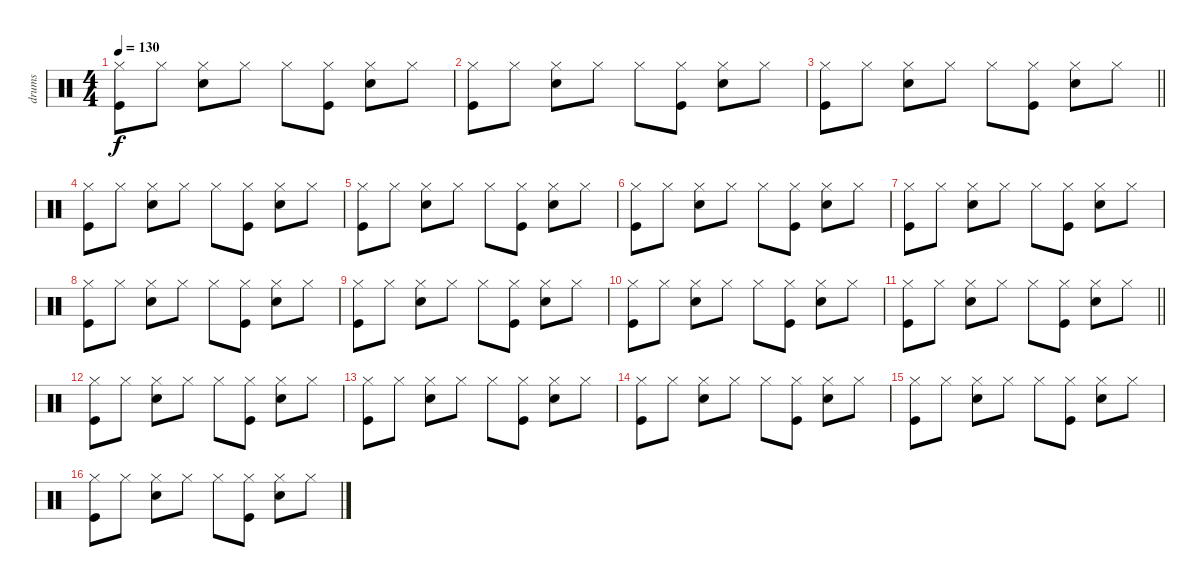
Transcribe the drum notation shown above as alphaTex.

\track ("drums" "drums") {instrument percussion}
\staff {score}
\articulation defaults
\ts (4 4)
\tempo 130
\clef neutral
\ks c
("Hi-Hat (closed)" "Kick (hit)").8{dy f} "Hi-Hat (closed)".8 ("Hi-Hat (closed)" "Snare (hit) 2").8 "Hi-Hat (closed)".8 "Hi-Hat (closed)".8 ("Hi-Hat (closed)" "Kick (hit)").8 ("Hi-Hat (closed)" "Snare (hit) 2").8 "Hi-Hat (closed)".8 |
("Hi-Hat (closed)" "Kick (hit)").8 "Hi-Hat (closed)".8 ("Hi-Hat (closed)" "Snare (hit) 2").8 "Hi-Hat (closed)".8 "Hi-Hat (closed)".8 ("Hi-Hat (closed)" "Kick (hit)").8 ("Hi-Hat (closed)" "Snare (hit) 2").8 "Hi-Hat (closed)".8 |
\barLineRight lightlight
("Hi-Hat (closed)" "Kick (hit)").8 "Hi-Hat (closed)".8 ("Hi-Hat (closed)" "Snare (hit) 2").8 "Hi-Hat (closed)".8 "Hi-Hat (closed)".8 ("Hi-Hat (closed)" "Kick (hit)").8 ("Hi-Hat (closed)" "Snare (hit) 2").8 "Hi-Hat (closed)".8 |
("Hi-Hat (closed)" "Kick (hit)").8 "Hi-Hat (closed)".8 ("Hi-Hat (closed)" "Snare (hit) 2").8 "Hi-Hat (closed)".8 "Hi-Hat (closed)".8 ("Hi-Hat (closed)" "Kick (hit)").8 ("Hi-Hat (closed)" "Snare (hit) 2").8 "Hi-Hat (closed)".8 |
("Hi-Hat (closed)" "Kick (hit)").8 "Hi-Hat (closed)".8 ("Hi-Hat (closed)" "Snare (hit) 2").8 "Hi-Hat (closed)".8 "Hi-Hat (closed)".8 ("Hi-Hat (closed)" "Kick (hit)").8 ("Hi-Hat (closed)" "Snare (hit) 2").8 "Hi-Hat (closed)".8 |
("Hi-Hat (closed)" "Kick (hit)").8 "Hi-Hat (closed)".8 ("Hi-Hat (closed)" "Snare (hit) 2").8 "Hi-Hat (closed)".8 "Hi-Hat (closed)".8 ("Hi-Hat (closed)" "Kick (hit)").8 ("Hi-Hat (closed)" "Snare (hit) 2").8 "Hi-Hat (closed)".8 |
("Hi-Hat (closed)" "Kick (hit)").8 "Hi-Hat (closed)".8 ("Hi-Hat (closed)" "Snare (hit) 2").8 "Hi-Hat (closed)".8 "Hi-Hat (closed)".8 ("Hi-Hat (closed)" "Kick (hit)").8 ("Hi-Hat (closed)" "Snare (hit) 2").8 "Hi-Hat (closed)".8 |
("Hi-Hat (closed)" "Kick (hit)").8 "Hi-Hat (closed)".8 ("Hi-Hat (closed)" "Snare (hit) 2").8 "Hi-Hat (closed)".8 "Hi-Hat (closed)".8 ("Hi-Hat (closed)" "Kick (hit)").8 ("Hi-Hat (closed)" "Snare (hit) 2").8 "Hi-Hat (closed)".8 |
("Hi-Hat (closed)" "Kick (hit)").8 "Hi-Hat (closed)".8 ("Hi-Hat (closed)" "Snare (hit) 2").8 "Hi-Hat (closed)".8 "Hi-Hat (closed)".8 ("Hi-Hat (closed)" "Kick (hit)").8 ("Hi-Hat (closed)" "Snare (hit) 2").8 "Hi-Hat (closed)".8 |
("Hi-Hat (closed)" "Kick (hit)").8 "Hi-Hat (closed)".8 ("Hi-Hat (closed)" "Snare (hit) 2").8 "Hi-Hat (closed)".8 "Hi-Hat (closed)".8 ("Hi-Hat (closed)" "Kick (hit)").8 ("Hi-Hat (closed)" "Snare (hit) 2").8 "Hi-Hat (closed)".8 |
\barLineRight lightlight
("Hi-Hat (closed)" "Kick (hit)").8 "Hi-Hat (closed)".8 ("Hi-Hat (closed)" "Snare (hit) 2").8 "Hi-Hat (closed)".8 "Hi-Hat (closed)".8 ("Hi-Hat (closed)" "Kick (hit)").8 ("Hi-Hat (closed)" "Snare (hit) 2").8 "Hi-Hat (closed)".8 |
("Hi-Hat (closed)" "Kick (hit)").8 "Hi-Hat (closed)".8 ("Hi-Hat (closed)" "Snare (hit) 2").8 "Hi-Hat (closed)".8 "Hi-Hat (closed)".8 ("Hi-Hat (closed)" "Kick (hit)").8 ("Hi-Hat (closed)" "Snare (hit) 2").8 "Hi-Hat (closed)".8 |
("Hi-Hat (closed)" "Kick (hit)").8 "Hi-Hat (closed)".8 ("Hi-Hat (closed)" "Snare (hit) 2").8 "Hi-Hat (closed)".8 "Hi-Hat (closed)".8 ("Hi-Hat (closed)" "Kick (hit)").8 ("Hi-Hat (closed)" "Snare (hit) 2").8 "Hi-Hat (closed)".8 |
("Hi-Hat (closed)" "Kick (hit)").8 "Hi-Hat (closed)".8 ("Hi-Hat (closed)" "Snare (hit) 2").8 "Hi-Hat (closed)".8 "Hi-Hat (closed)".8 ("Hi-Hat (closed)" "Kick (hit)").8 ("Hi-Hat (closed)" "Snare (hit) 2").8 "Hi-Hat (closed)".8 |
("Hi-Hat (closed)" "Kick (hit)").8 "Hi-Hat (closed)".8 ("Hi-Hat (closed)" "Snare (hit) 2").8 "Hi-Hat (closed)".8 "Hi-Hat (closed)".8 ("Hi-Hat (closed)" "Kick (hit)").8 ("Hi-Hat (closed)" "Snare (hit) 2").8 "Hi-Hat (closed)".8 |
("Hi-Hat (closed)" "Kick (hit)").8 "Hi-Hat (closed)".8 ("Hi-Hat (closed)" "Snare (hit) 2").8 "Hi-Hat (closed)".8 "Hi-Hat (closed)".8 ("Hi-Hat (closed)" "Kick (hit)").8 ("Hi-Hat (closed)" "Snare (hit) 2").8 "Hi-Hat (closed)".8
